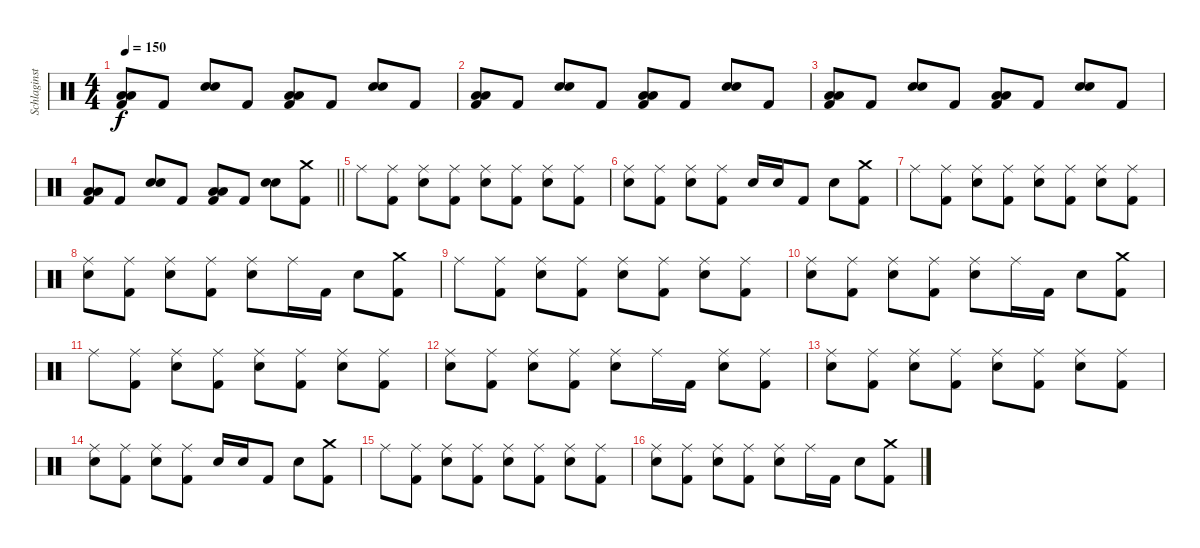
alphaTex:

\track ("Schlaginstrumente - Auswahl" "Schlaginst") {instrument percussion}
\staff {score}
\articulation defaults
\ts (4 4)
\tempo 150
\clef neutral
\ks c
("Low Tom (hit)" "Low Tom (hit)" "Kick (hit) 2").8{dy f} "Kick (hit) 2".8 ("Snare (hit) 2" "Snare (hit) 2").8{bd 120} "Kick (hit) 2".8 ("Low Tom (hit)" "Low Tom (hit)" "Kick (hit) 2").8 "Kick (hit) 2".8 ("Snare (hit) 2" "Snare (hit) 2").8{bd 120} "Kick (hit) 2".8 |
("Low Tom (hit)" "Low Tom (hit)" "Kick (hit) 2").8 "Kick (hit) 2".8 ("Snare (hit) 2" "Snare (hit) 2").8{bd 120} "Kick (hit) 2".8 ("Low Tom (hit)" "Low Tom (hit)" "Kick (hit) 2").8 "Kick (hit) 2".8 ("Snare (hit) 2" "Snare (hit) 2").8{bd 120} "Kick (hit) 2".8 |
("Low Tom (hit)" "Low Tom (hit)" "Kick (hit) 2").8 "Kick (hit) 2".8 ("Snare (hit) 2" "Snare (hit) 2").8{bd 120} "Kick (hit) 2".8 ("Low Tom (hit)" "Low Tom (hit)" "Kick (hit) 2").8 "Kick (hit) 2".8 ("Snare (hit) 2" "Snare (hit) 2").8{bd 120} "Kick (hit) 2".8 |
\barLineRight lightlight
("Low Tom (hit)" "Low Tom (hit)" "Kick (hit) 2").8 "Kick (hit) 2".8 ("Snare (hit) 2" "Snare (hit) 2").8{bd 120} "Kick (hit) 2".8 ("Low Tom (hit)" "Low Tom (hit)" "Kick (hit) 2").8 "Kick (hit) 2".8 ("Snare (hit) 2" "Snare (hit) 2").8{bd 120} ("Crash medium (hit)" "Kick (hit) 2").8 |
"Ride (middle)".8 ("Ride (middle)" "Kick (hit) 2").8 ("Ride (middle)" "Snare (hit) 2").8 ("Ride (middle)" "Kick (hit) 2").8 ("Ride (middle)" "Snare (hit) 2").8 ("Ride (middle)" "Kick (hit) 2").8 ("Ride (middle)" "Snare (hit) 2").8 ("Ride (middle)" "Kick (hit) 2").8 |
("Ride (middle)" "Snare (hit) 2").8 ("Ride (middle)" "Kick (hit) 2").8 ("Ride (middle)" "Snare (hit) 2").8 ("Ride (middle)" "Kick (hit) 2").8 "Snare (hit) 2".16 "Snare (hit) 2".16 "Kick (hit) 2".8 "Snare (hit) 2".8 ("Crash medium (hit)" "Kick (hit) 2").8 |
"Ride (middle)".8 ("Ride (middle)" "Kick (hit) 2").8 ("Ride (middle)" "Snare (hit) 2").8 ("Ride (middle)" "Kick (hit) 2").8 ("Ride (middle)" "Snare (hit) 2").8 ("Ride (middle)" "Kick (hit) 2").8 ("Ride (middle)" "Snare (hit) 2").8 ("Ride (middle)" "Kick (hit) 2").8 |
("Ride (middle)" "Snare (hit) 2").8 ("Ride (middle)" "Kick (hit) 2").8 ("Ride (middle)" "Snare (hit) 2").8 ("Ride (middle)" "Kick (hit) 2").8 ("Ride (middle)" "Snare (hit) 2").8 "Ride (middle)".16 "Kick (hit) 2".16 "Snare (hit) 2".8 ("Crash medium (hit)" "Kick (hit) 2").8 |
"Ride (middle)".8 ("Ride (middle)" "Kick (hit) 2").8 ("Ride (middle)" "Snare (hit) 2").8 ("Ride (middle)" "Kick (hit) 2").8 ("Ride (middle)" "Snare (hit) 2").8 ("Ride (middle)" "Kick (hit) 2").8 ("Ride (middle)" "Snare (hit) 2").8 ("Ride (middle)" "Kick (hit) 2").8 |
("Ride (middle)" "Snare (hit) 2").8 ("Ride (middle)" "Kick (hit) 2").8 ("Ride (middle)" "Snare (hit) 2").8 ("Ride (middle)" "Kick (hit) 2").8 ("Ride (middle)" "Snare (hit) 2").8 "Ride (middle)".16 "Kick (hit) 2".16 "Snare (hit) 2".8 ("Crash medium (hit)" "Kick (hit) 2").8 |
"Ride (middle)".8 ("Ride (middle)" "Kick (hit) 2").8 ("Ride (middle)" "Snare (hit) 2").8 ("Ride (middle)" "Kick (hit) 2").8 ("Ride (middle)" "Snare (hit) 2").8 ("Ride (middle)" "Kick (hit) 2").8 ("Ride (middle)" "Snare (hit) 2").8 ("Ride (middle)" "Kick (hit) 2").8 |
("Ride (middle)" "Snare (hit) 2").8 ("Ride (middle)" "Kick (hit) 2").8 ("Ride (middle)" "Snare (hit) 2").8 ("Ride (middle)" "Kick (hit) 2").8 ("Ride (middle)" "Snare (hit) 2").8 "Ride (middle)".16 "Kick (hit) 2".16 ("Ride (middle)" "Snare (hit) 2").8 ("Ride (middle)" "Kick (hit) 2").8 |
("Ride (middle)" "Snare (hit) 2").8 ("Ride (middle)" "Kick (hit) 2").8 ("Ride (middle)" "Snare (hit) 2").8 ("Ride (middle)" "Kick (hit) 2").8 ("Ride (middle)" "Snare (hit) 2").8 ("Ride (middle)" "Kick (hit) 2").8 ("Ride (middle)" "Snare (hit) 2").8 ("Ride (middle)" "Kick (hit) 2").8 |
("Ride (middle)" "Snare (hit) 2").8 ("Ride (middle)" "Kick (hit) 2").8 ("Ride (middle)" "Snare (hit) 2").8 ("Ride (middle)" "Kick (hit) 2").8 "Snare (hit) 2".16 "Snare (hit) 2".16 "Kick (hit) 2".8 "Snare (hit) 2".8 ("Crash medium (hit)" "Kick (hit) 2").8 |
"Ride (middle)".8 ("Ride (middle)" "Kick (hit) 2").8 ("Ride (middle)" "Snare (hit) 2").8 ("Ride (middle)" "Kick (hit) 2").8 ("Ride (middle)" "Snare (hit) 2").8 ("Ride (middle)" "Kick (hit) 2").8 ("Ride (middle)" "Snare (hit) 2").8 ("Ride (middle)" "Kick (hit) 2").8 |
("Ride (middle)" "Snare (hit) 2").8 ("Ride (middle)" "Kick (hit) 2").8 ("Ride (middle)" "Snare (hit) 2").8 ("Ride (middle)" "Kick (hit) 2").8 ("Ride (middle)" "Snare (hit) 2").8 "Ride (middle)".16 "Kick (hit) 2".16 "Snare (hit) 2".8 ("Crash medium (hit)" "Kick (hit) 2").8
